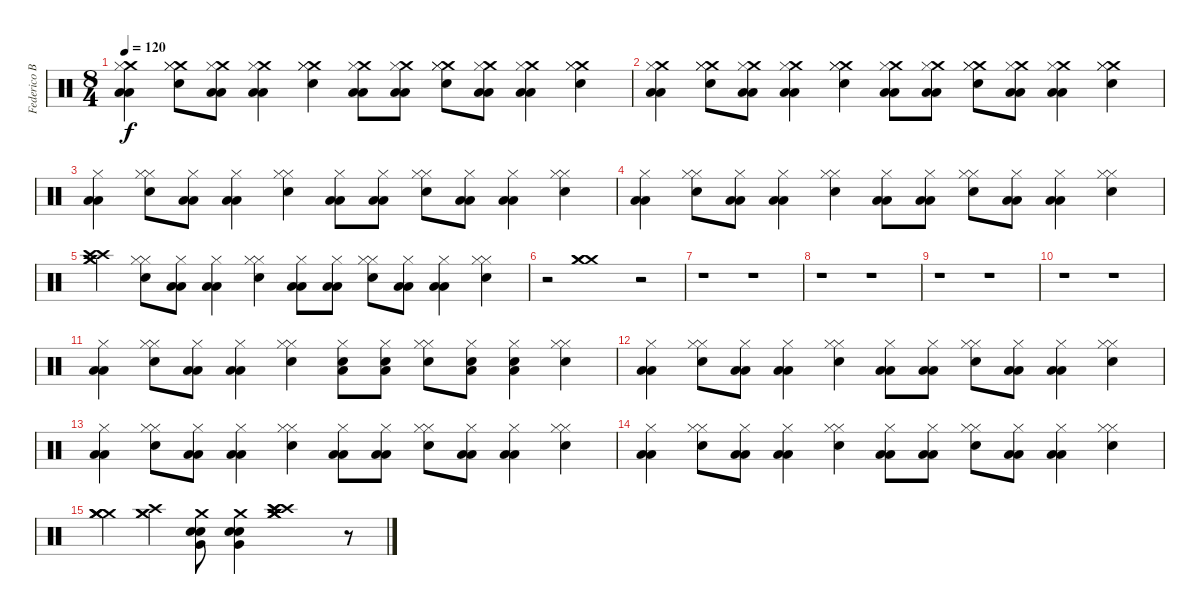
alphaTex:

\track ("Federico Bogliaccino - Drums" "Federico B") {instrument percussion}
\staff {score}
\articulation defaults
\ts (8 4)
\tempo 120
\clef neutral
\ks c
("Crash medium (hit)" "Hi-Hat (closed)" "Low Floor Tom (hit)" "Low Floor Tom (hit)").4{dy f} ("Crash medium (hit)" "Hi-Hat (closed)" "Hi-Hat (closed)" "Snare (hit) 2").8 ("Crash medium (hit)" "Hi-Hat (closed)" "Low Floor Tom (hit)" "Low Floor Tom (hit)").8 ("Crash medium (hit)" "Hi-Hat (closed)" "Low Floor Tom (hit)" "Low Floor Tom (hit)").4 ("Crash medium (hit)" "Hi-Hat (closed)" "Hi-Hat (closed)" "Snare (hit) 2").4 ("Crash medium (hit)" "Hi-Hat (closed)" "Low Floor Tom (hit)" "Low Floor Tom (hit)").8 ("Crash medium (hit)" "Hi-Hat (closed)" "Low Floor Tom (hit)" "Low Floor Tom (hit)").8 ("Crash medium (hit)" "Hi-Hat (closed)" "Hi-Hat (closed)" "Snare (hit) 2").8 ("Crash medium (hit)" "Hi-Hat (closed)" "Low Floor Tom (hit)" "Low Floor Tom (hit)").8 ("Crash medium (hit)" "Hi-Hat (closed)" "Low Floor Tom (hit)" "Low Floor Tom (hit)").4 ("Crash medium (hit)" "Hi-Hat (closed)" "Hi-Hat (closed)" "Snare (hit) 2").4 |
("Crash medium (hit)" "Hi-Hat (closed)" "Low Floor Tom (hit)" "Low Floor Tom (hit)").4 ("Crash medium (hit)" "Hi-Hat (closed)" "Hi-Hat (closed)" "Snare (hit) 2").8 ("Crash medium (hit)" "Hi-Hat (closed)" "Low Floor Tom (hit)" "Low Floor Tom (hit)").8 ("Crash medium (hit)" "Hi-Hat (closed)" "Low Floor Tom (hit)" "Low Floor Tom (hit)").4 ("Crash medium (hit)" "Hi-Hat (closed)" "Hi-Hat (closed)" "Snare (hit) 2").4 ("Crash medium (hit)" "Hi-Hat (closed)" "Low Floor Tom (hit)" "Low Floor Tom (hit)").8 ("Crash medium (hit)" "Hi-Hat (closed)" "Low Floor Tom (hit)" "Low Floor Tom (hit)").8 ("Crash medium (hit)" "Hi-Hat (closed)" "Hi-Hat (closed)" "Snare (hit) 2").8 ("Crash medium (hit)" "Hi-Hat (closed)" "Low Floor Tom (hit)" "Low Floor Tom (hit)").8 ("Crash medium (hit)" "Hi-Hat (closed)" "Low Floor Tom (hit)" "Low Floor Tom (hit)").4 ("Crash medium (hit)" "Hi-Hat (closed)" "Hi-Hat (closed)" "Snare (hit) 2").4 |
("Hi-Hat (closed)" "Low Floor Tom (hit)" "Low Floor Tom (hit)").4 ("Hi-Hat (closed)" "Hi-Hat (closed)" "Snare (hit) 2").8 ("Hi-Hat (closed)" "Low Floor Tom (hit)" "Low Floor Tom (hit)").8 ("Hi-Hat (closed)" "Low Floor Tom (hit)" "Low Floor Tom (hit)").4 ("Hi-Hat (closed)" "Hi-Hat (closed)" "Snare (hit) 2").4 ("Hi-Hat (closed)" "Low Floor Tom (hit)" "Low Floor Tom (hit)").8 ("Hi-Hat (closed)" "Low Floor Tom (hit)" "Low Floor Tom (hit)").8 ("Hi-Hat (closed)" "Hi-Hat (closed)" "Snare (hit) 2").8 ("Hi-Hat (closed)" "Low Floor Tom (hit)" "Low Floor Tom (hit)").8 ("Hi-Hat (closed)" "Low Floor Tom (hit)" "Low Floor Tom (hit)").4 ("Hi-Hat (closed)" "Hi-Hat (closed)" "Snare (hit) 2").4 |
("Hi-Hat (closed)" "Low Floor Tom (hit)" "Low Floor Tom (hit)").4 ("Hi-Hat (closed)" "Hi-Hat (closed)" "Snare (hit) 2").8 ("Hi-Hat (closed)" "Low Floor Tom (hit)" "Low Floor Tom (hit)").8 ("Hi-Hat (closed)" "Low Floor Tom (hit)" "Low Floor Tom (hit)").4 ("Hi-Hat (closed)" "Hi-Hat (closed)" "Snare (hit) 2").4 ("Hi-Hat (closed)" "Low Floor Tom (hit)" "Low Floor Tom (hit)").8 ("Hi-Hat (closed)" "Low Floor Tom (hit)" "Low Floor Tom (hit)").8 ("Hi-Hat (closed)" "Hi-Hat (closed)" "Snare (hit) 2").8 ("Hi-Hat (closed)" "Low Floor Tom (hit)" "Low Floor Tom (hit)").8 ("Hi-Hat (closed)" "Low Floor Tom (hit)" "Low Floor Tom (hit)").4 ("Hi-Hat (closed)" "Hi-Hat (closed)" "Snare (hit) 2").4 |
("Crash medium (hit)" "Crash medium (hit)" "Crash high (hit)" "Crash high (hit)").4 ("Hi-Hat (closed)" "Hi-Hat (closed)" "Snare (hit) 2").8 ("Hi-Hat (closed)" "Low Floor Tom (hit)" "Low Floor Tom (hit)").8 ("Hi-Hat (closed)" "Low Floor Tom (hit)" "Low Floor Tom (hit)").4 ("Hi-Hat (closed)" "Hi-Hat (closed)" "Snare (hit) 2").4 ("Hi-Hat (closed)" "Low Floor Tom (hit)" "Low Floor Tom (hit)").8 ("Hi-Hat (closed)" "Low Floor Tom (hit)" "Low Floor Tom (hit)").8 ("Hi-Hat (closed)" "Hi-Hat (closed)" "Snare (hit) 2").8 ("Hi-Hat (closed)" "Low Floor Tom (hit)" "Low Floor Tom (hit)").8 ("Hi-Hat (closed)" "Low Floor Tom (hit)" "Low Floor Tom (hit)").4 ("Hi-Hat (closed)" "Hi-Hat (closed)" "Snare (hit) 2").4 |
r.2 ("Crash medium (hit)" "Crash medium (hit)" "Crash medium (hit)").1 r.2 |
r.1 r.1 |
r.1 r.1 |
r.1 r.1 |
r.1 r.1 |
("Hi-Hat (closed)" "Low Floor Tom (hit)" "Low Floor Tom (hit)").4 ("Hi-Hat (closed)" "Hi-Hat (closed)" "Snare (hit) 2").8 ("Hi-Hat (closed)" "Low Floor Tom (hit)" "Low Floor Tom (hit)").8 ("Hi-Hat (closed)" "Low Floor Tom (hit)" "Low Floor Tom (hit)").4 ("Hi-Hat (closed)" "Hi-Hat (closed)" "Snare (hit) 2").4 ("Hi-Hat (closed)" "Low Floor Tom (hit)" "Snare (hit) 2").8 ("Hi-Hat (closed)" "Low Floor Tom (hit)" "Snare (hit) 2").8 ("Hi-Hat (closed)" "Hi-Hat (closed)" "Snare (hit) 2").8 ("Hi-Hat (closed)" "Low Floor Tom (hit)" "Snare (hit) 2").8 ("Hi-Hat (closed)" "Low Floor Tom (hit)" "Snare (hit) 2").4 ("Hi-Hat (closed)" "Hi-Hat (closed)" "Snare (hit) 2").4 |
("Hi-Hat (closed)" "Low Floor Tom (hit)" "Low Floor Tom (hit)").4 ("Hi-Hat (closed)" "Hi-Hat (closed)" "Snare (hit) 2").8 ("Hi-Hat (closed)" "Low Floor Tom (hit)" "Low Floor Tom (hit)").8 ("Hi-Hat (closed)" "Low Floor Tom (hit)" "Low Floor Tom (hit)").4 ("Hi-Hat (closed)" "Hi-Hat (closed)" "Snare (hit) 2").4 ("Hi-Hat (closed)" "Low Floor Tom (hit)" "Low Floor Tom (hit)").8 ("Hi-Hat (closed)" "Low Floor Tom (hit)" "Low Floor Tom (hit)").8 ("Hi-Hat (closed)" "Hi-Hat (closed)" "Snare (hit) 2").8 ("Hi-Hat (closed)" "Low Floor Tom (hit)" "Low Floor Tom (hit)").8 ("Hi-Hat (closed)" "Low Floor Tom (hit)" "Low Floor Tom (hit)").4 ("Hi-Hat (closed)" "Hi-Hat (closed)" "Snare (hit) 2").4 |
("Hi-Hat (closed)" "Low Floor Tom (hit)" "Low Floor Tom (hit)").4 ("Hi-Hat (closed)" "Hi-Hat (closed)" "Snare (hit) 2").8 ("Hi-Hat (closed)" "Low Floor Tom (hit)" "Low Floor Tom (hit)").8 ("Hi-Hat (closed)" "Low Floor Tom (hit)" "Low Floor Tom (hit)").4 ("Hi-Hat (closed)" "Hi-Hat (closed)" "Snare (hit) 2").4 ("Hi-Hat (closed)" "Low Floor Tom (hit)" "Low Floor Tom (hit)").8 ("Hi-Hat (closed)" "Low Floor Tom (hit)" "Low Floor Tom (hit)").8 ("Hi-Hat (closed)" "Hi-Hat (closed)" "Snare (hit) 2").8 ("Hi-Hat (closed)" "Low Floor Tom (hit)" "Low Floor Tom (hit)").8 ("Hi-Hat (closed)" "Low Floor Tom (hit)" "Low Floor Tom (hit)").4 ("Hi-Hat (closed)" "Hi-Hat (closed)" "Snare (hit) 2").4 |
("Hi-Hat (closed)" "Low Floor Tom (hit)" "Low Floor Tom (hit)").4 ("Hi-Hat (closed)" "Hi-Hat (closed)" "Snare (hit) 2").8 ("Hi-Hat (closed)" "Low Floor Tom (hit)" "Low Floor Tom (hit)").8 ("Hi-Hat (closed)" "Low Floor Tom (hit)" "Low Floor Tom (hit)").4 ("Hi-Hat (closed)" "Hi-Hat (closed)" "Snare (hit) 2").4 ("Hi-Hat (closed)" "Low Floor Tom (hit)" "Low Floor Tom (hit)").8 ("Hi-Hat (closed)" "Low Floor Tom (hit)" "Low Floor Tom (hit)").8 ("Hi-Hat (closed)" "Hi-Hat (closed)" "Snare (hit) 2").8 ("Hi-Hat (closed)" "Low Floor Tom (hit)" "Low Floor Tom (hit)").8 ("Hi-Hat (closed)" "Low Floor Tom (hit)" "Low Floor Tom (hit)").4 ("Hi-Hat (closed)" "Hi-Hat (closed)" "Snare (hit) 2").4 |
("Crash medium (hit)" "Crash medium (hit)" "Crash medium (hit)" "Crash medium (hit)").4 ("Crash high (hit)" "Crash medium (hit)" "Crash medium (hit)").4 ("Crash medium (hit)" "Very Low Tom (hit)" "Snare (hit) 2" "Snare (hit) 2").8 ("Crash medium (hit)" "Very Low Tom (hit)" "Snare (hit) 2" "Snare (hit) 2").4 ("Crash medium (hit)" "Crash medium (hit)" "Crash medium (hit)" "Crash high (hit)" "Crash high (hit)" "Crash high (hit)").1 r.8
